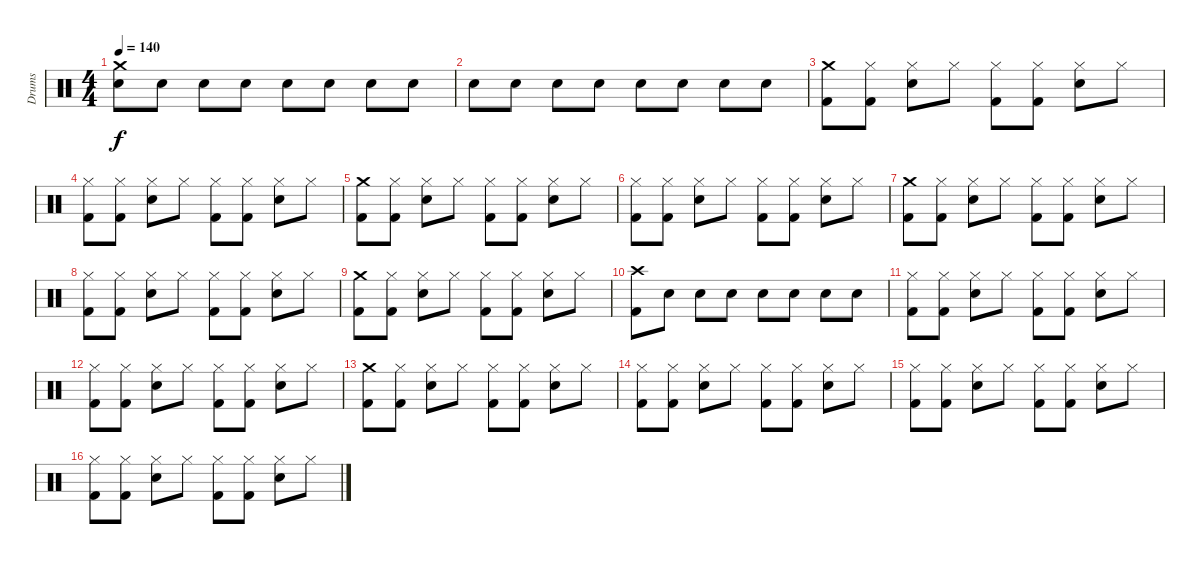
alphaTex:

\track ("Drums" "Drums") {instrument percussion}
\staff {score}
\articulation defaults
\ts (4 4)
\tempo 140
\clef neutral
\ks c
("Crash medium (hit)" "Electric Snare (hit)").8{dy f} "Electric Snare (hit)".8 "Electric Snare (hit)".8 "Electric Snare (hit)".8 "Electric Snare (hit)".8 "Electric Snare (hit)".8 "Electric Snare (hit)".8 "Electric Snare (hit)".8 |
"Electric Snare (hit)".8 "Electric Snare (hit)".8 "Electric Snare (hit)".8 "Electric Snare (hit)".8 "Electric Snare (hit)".8 "Electric Snare (hit)".8 "Electric Snare (hit)".8 "Electric Snare (hit)".8 |
("Crash medium (hit)" "Kick (hit) 2").8 ("Hi-Hat (closed)" "Kick (hit) 2").8 ("Hi-Hat (closed)" "Electric Snare (hit)").8 "Hi-Hat (closed)".8 ("Hi-Hat (closed)" "Kick (hit) 2").8 ("Hi-Hat (closed)" "Kick (hit) 2").8 ("Hi-Hat (closed)" "Electric Snare (hit)").8 "Hi-Hat (closed)".8 |
("Hi-Hat (closed)" "Kick (hit) 2").8 ("Hi-Hat (closed)" "Kick (hit) 2").8 ("Hi-Hat (closed)" "Electric Snare (hit)").8 "Hi-Hat (closed)".8 ("Hi-Hat (closed)" "Kick (hit) 2").8 ("Hi-Hat (closed)" "Kick (hit) 2").8 ("Hi-Hat (closed)" "Electric Snare (hit)").8 "Hi-Hat (closed)".8 |
("Crash medium (hit)" "Kick (hit) 2").8 ("Hi-Hat (closed)" "Kick (hit) 2").8 ("Hi-Hat (closed)" "Electric Snare (hit)").8 "Hi-Hat (closed)".8 ("Hi-Hat (closed)" "Kick (hit) 2").8 ("Hi-Hat (closed)" "Kick (hit) 2").8 ("Hi-Hat (closed)" "Electric Snare (hit)").8 "Hi-Hat (closed)".8 |
("Hi-Hat (closed)" "Kick (hit) 2").8 ("Hi-Hat (closed)" "Kick (hit) 2").8 ("Hi-Hat (closed)" "Electric Snare (hit)").8 "Hi-Hat (closed)".8 ("Hi-Hat (closed)" "Kick (hit) 2").8 ("Hi-Hat (closed)" "Kick (hit) 2").8 ("Hi-Hat (closed)" "Electric Snare (hit)").8 "Hi-Hat (closed)".8 |
("Crash medium (hit)" "Kick (hit) 2").8 ("Hi-Hat (closed)" "Kick (hit) 2").8 ("Hi-Hat (closed)" "Electric Snare (hit)").8 "Hi-Hat (closed)".8 ("Hi-Hat (closed)" "Kick (hit) 2").8 ("Hi-Hat (closed)" "Kick (hit) 2").8 ("Hi-Hat (closed)" "Electric Snare (hit)").8 "Hi-Hat (closed)".8 |
("Hi-Hat (closed)" "Kick (hit) 2").8 ("Hi-Hat (closed)" "Kick (hit) 2").8 ("Hi-Hat (closed)" "Electric Snare (hit)").8 "Hi-Hat (closed)".8 ("Hi-Hat (closed)" "Kick (hit) 2").8 ("Hi-Hat (closed)" "Kick (hit) 2").8 ("Hi-Hat (closed)" "Electric Snare (hit)").8 "Hi-Hat (closed)".8 |
("Crash medium (hit)" "Kick (hit) 2").8 ("Hi-Hat (closed)" "Kick (hit) 2").8 ("Hi-Hat (closed)" "Electric Snare (hit)").8 "Hi-Hat (closed)".8 ("Hi-Hat (closed)" "Kick (hit) 2").8 ("Hi-Hat (closed)" "Kick (hit) 2").8 ("Hi-Hat (closed)" "Electric Snare (hit)").8 "Hi-Hat (closed)".8 |
("Crash high (hit)" "Kick (hit) 2").8 "Electric Snare (hit)".8 "Electric Snare (hit)".8 "Electric Snare (hit)".8 "Electric Snare (hit)".8 "Electric Snare (hit)".8 "Electric Snare (hit)".8 "Electric Snare (hit)".8 |
("Hi-Hat (closed)" "Kick (hit) 2").8 ("Hi-Hat (closed)" "Kick (hit) 2").8 ("Hi-Hat (closed)" "Electric Snare (hit)").8 "Hi-Hat (closed)".8 ("Hi-Hat (closed)" "Kick (hit) 2").8 ("Hi-Hat (closed)" "Kick (hit) 2").8 ("Hi-Hat (closed)" "Electric Snare (hit)").8 "Hi-Hat (closed)".8 |
("Hi-Hat (closed)" "Kick (hit) 2").8 ("Hi-Hat (closed)" "Kick (hit) 2").8 ("Hi-Hat (closed)" "Electric Snare (hit)").8 "Hi-Hat (closed)".8 ("Hi-Hat (closed)" "Kick (hit) 2").8 ("Hi-Hat (closed)" "Kick (hit) 2").8 ("Hi-Hat (closed)" "Electric Snare (hit)").8 "Hi-Hat (closed)".8 |
("Crash medium (hit)" "Kick (hit) 2").8 ("Hi-Hat (closed)" "Kick (hit) 2").8 ("Hi-Hat (closed)" "Electric Snare (hit)").8 "Hi-Hat (closed)".8 ("Hi-Hat (closed)" "Kick (hit) 2").8 ("Hi-Hat (closed)" "Kick (hit) 2").8 ("Hi-Hat (closed)" "Electric Snare (hit)").8 "Hi-Hat (closed)".8 |
("Hi-Hat (closed)" "Kick (hit) 2").8 ("Hi-Hat (closed)" "Kick (hit) 2").8 ("Hi-Hat (closed)" "Electric Snare (hit)").8 "Hi-Hat (closed)".8 ("Hi-Hat (closed)" "Kick (hit) 2").8 ("Hi-Hat (closed)" "Kick (hit) 2").8 ("Hi-Hat (closed)" "Electric Snare (hit)").8 "Hi-Hat (closed)".8 |
("Hi-Hat (closed)" "Kick (hit) 2").8 ("Hi-Hat (closed)" "Kick (hit) 2").8 ("Hi-Hat (closed)" "Electric Snare (hit)").8 "Hi-Hat (closed)".8 ("Hi-Hat (closed)" "Kick (hit) 2").8 ("Hi-Hat (closed)" "Kick (hit) 2").8 ("Hi-Hat (closed)" "Electric Snare (hit)").8 "Hi-Hat (closed)".8 |
("Hi-Hat (closed)" "Kick (hit) 2").8 ("Hi-Hat (closed)" "Kick (hit) 2").8 ("Hi-Hat (closed)" "Electric Snare (hit)").8 "Hi-Hat (closed)".8 ("Hi-Hat (closed)" "Kick (hit) 2").8 ("Hi-Hat (closed)" "Kick (hit) 2").8 ("Hi-Hat (closed)" "Electric Snare (hit)").8 "Hi-Hat (closed)".8
